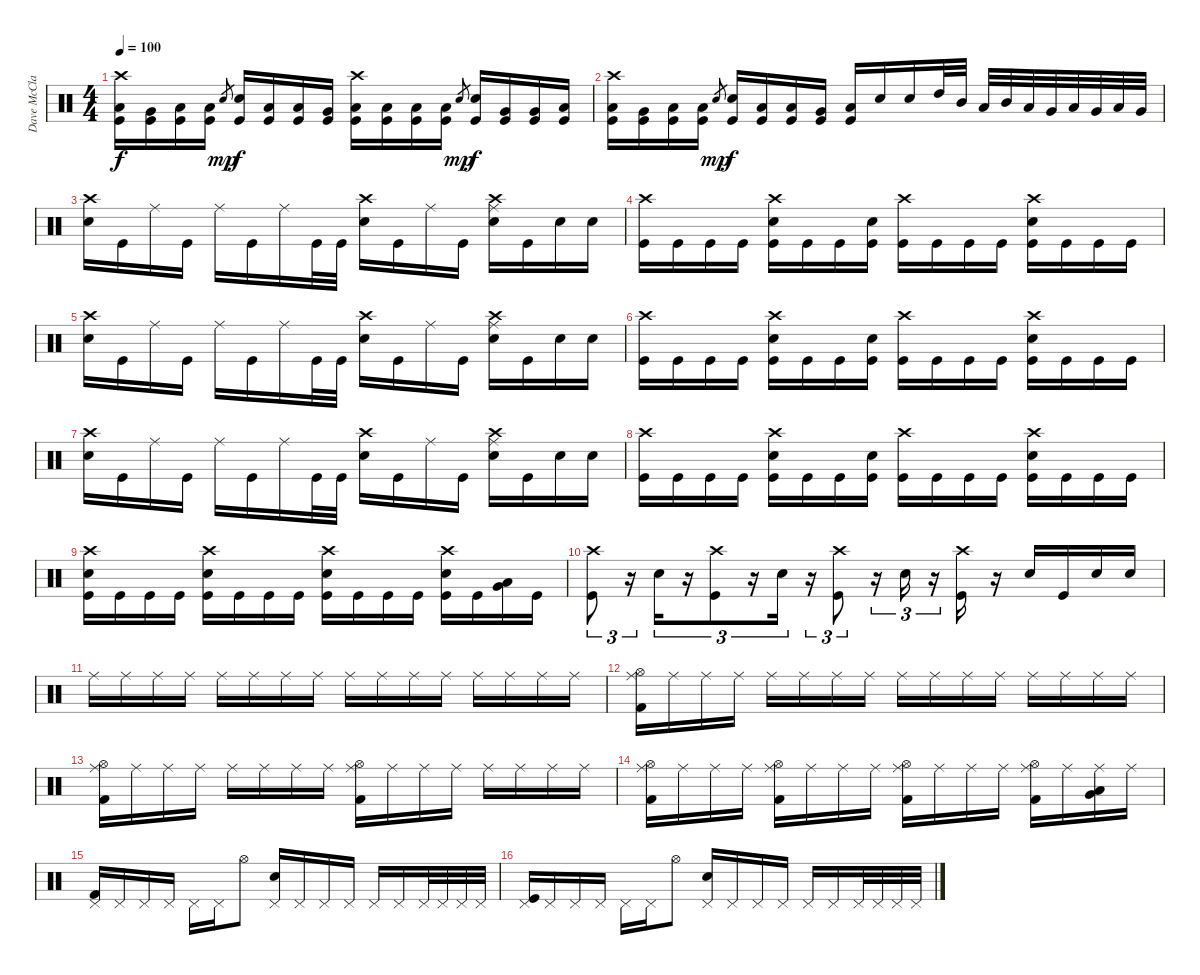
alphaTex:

\track ("Dave McClain" "Dave McCla") {instrument percussion}
\staff {score}
\articulation defaults
\ts (4 4)
\tempo 100
\clef neutral
\ks c
("Crash high (hit)" "Low Tom (hit)" "Kick (hit)").16{dy f} ("Very Low Tom (hit)" "Kick (hit)").16 ("Low Floor Tom (hit)" "Kick (hit)").16 ("Low Floor Tom (hit)" "Kick (hit)").16 "Snare (hit) 2".8{gr dy mp} ("Snare (hit) 2" "Kick (hit)").16{dy f} ("Low Floor Tom (hit)" "Kick (hit)").16 ("Low Tom (hit)" "Kick (hit)").16 ("Very Low Tom (hit)" "Kick (hit)").16 ("Crash high (hit)" "Low Floor Tom (hit)" "Kick (hit)").16 ("Low Floor Tom (hit)" "Kick (hit)").16 ("Low Floor Tom (hit)" "Kick (hit)").16 ("Low Floor Tom (hit)" "Kick (hit)").16 "Snare (hit) 2".8{gr dy mp} ("Snare (hit) 2" "Kick (hit)").16{dy f} ("Very Low Tom (hit)" "Kick (hit)").16 ("Very Low Tom (hit)" "Kick (hit)").16 ("Low Floor Tom (hit)" "Kick (hit)").16 |
("Crash high (hit)" "Low Tom (hit)" "Kick (hit)").16 ("Very Low Tom (hit)" "Kick (hit)").16 ("Low Floor Tom (hit)" "Kick (hit)").16 ("Low Floor Tom (hit)" "Kick (hit)").16 "Snare (hit) 2".8{gr dy mp} ("Snare (hit) 2" "Kick (hit)").16{dy f} ("Low Floor Tom (hit)" "Kick (hit)").16 ("Low Tom (hit)" "Kick (hit)").16 ("Very Low Tom (hit)" "Kick (hit)").16 ("Low Floor Tom (hit)" "Kick (hit)").16 "Snare (hit) 2".16 "Snare (hit) 2".16 "High Tom (hit)".32 "Mid Tom (hit)".32 "Low Tom (hit)".32 "Mid Tom (hit)".32 "Low Tom (hit)".32 "Very Low Tom (hit)".32 "Low Tom (hit)".32 "Very Low Tom (hit)".32 "Low Floor Tom (hit)".32 "Very Low Tom (hit)".32 |
("Crash high (hit)" "Snare (hit) 2").16 "Kick (hit)".16 "Ride (middle)".16 "Kick (hit)".16 "Ride (middle)".16 "Kick (hit)".16 "Ride (middle)".16 "Kick (hit)".32 "Kick (hit)".32 ("Crash high (hit)" "Snare (hit) 2").16 "Kick (hit)".16 "Ride (middle)".16 "Kick (hit)".16 ("Crash high (hit)" "Ride (middle)" "Snare (hit) 2").16 "Kick (hit)".16 "Snare (hit) 2".16 "Snare (hit) 2".16 |
("Crash high (hit)" "Kick (hit)").16 "Kick (hit)".16 "Kick (hit)".16 "Kick (hit)".16 ("Crash high (hit)" "Snare (hit) 2" "Kick (hit)").16 "Kick (hit)".16 "Kick (hit)".16 ("Snare (hit) 2" "Kick (hit)").16 ("Crash high (hit)" "Kick (hit)").16 "Kick (hit)".16 "Kick (hit)".16 "Kick (hit)".16 ("Crash high (hit)" "Snare (hit) 2" "Kick (hit)").16 "Kick (hit)".16 "Kick (hit)".16 "Kick (hit)".16 |
("Crash high (hit)" "Snare (hit) 2").16 "Kick (hit)".16 "Ride (middle)".16 "Kick (hit)".16 "Ride (middle)".16 "Kick (hit)".16 "Ride (middle)".16 "Kick (hit)".32 "Kick (hit)".32 ("Crash high (hit)" "Snare (hit) 2").16 "Kick (hit)".16 "Ride (middle)".16 "Kick (hit)".16 ("Crash high (hit)" "Ride (middle)" "Snare (hit) 2").16 "Kick (hit)".16 "Snare (hit) 2".16 "Snare (hit) 2".16 |
("Crash high (hit)" "Kick (hit)").16 "Kick (hit)".16 "Kick (hit)".16 "Kick (hit)".16 ("Crash high (hit)" "Snare (hit) 2" "Kick (hit)").16 "Kick (hit)".16 "Kick (hit)".16 ("Snare (hit) 2" "Kick (hit)").16 ("Crash high (hit)" "Kick (hit)").16 "Kick (hit)".16 "Kick (hit)".16 "Kick (hit)".16 ("Crash high (hit)" "Snare (hit) 2" "Kick (hit)").16 "Kick (hit)".16 "Kick (hit)".16 "Kick (hit)".16 |
("Crash high (hit)" "Snare (hit) 2").16 "Kick (hit)".16 "Ride (middle)".16 "Kick (hit)".16 "Ride (middle)".16 "Kick (hit)".16 "Ride (middle)".16 "Kick (hit)".32 "Kick (hit)".32 ("Crash high (hit)" "Snare (hit) 2").16 "Kick (hit)".16 "Ride (middle)".16 "Kick (hit)".16 ("Crash high (hit)" "Ride (middle)" "Snare (hit) 2").16 "Kick (hit)".16 "Snare (hit) 2".16 "Snare (hit) 2".16 |
("Crash high (hit)" "Kick (hit)").16 "Kick (hit)".16 "Kick (hit)".16 "Kick (hit)".16 ("Crash high (hit)" "Snare (hit) 2" "Kick (hit)").16 "Kick (hit)".16 "Kick (hit)".16 ("Snare (hit) 2" "Kick (hit)").16 ("Crash high (hit)" "Kick (hit)").16 "Kick (hit)".16 "Kick (hit)".16 "Kick (hit)".16 ("Crash high (hit)" "Snare (hit) 2" "Kick (hit)").16 "Kick (hit)".16 "Kick (hit)".16 "Kick (hit)".16 |
("Crash high (hit)" "Snare (hit) 2" "Kick (hit)").16 "Kick (hit)".16 "Kick (hit)".16 "Kick (hit)".16 ("Crash high (hit)" "Snare (hit) 2" "Kick (hit)").16 "Kick (hit)".16 "Kick (hit)".16 "Kick (hit)".16 ("Crash high (hit)" "Snare (hit) 2" "Kick (hit)").16 "Kick (hit)".16 "Kick (hit)".16 "Kick (hit)".16 ("Crash high (hit)" "Snare (hit) 2" "Kick (hit)").16 "Kick (hit)".16 ("Very Low Tom (hit)" "Low Floor Tom (hit)").16 "Kick (hit)".16 |
("Crash high (hit)" "Kick (hit)").8{tu (3 2)} r.16{tu (3 2)} "Snare (hit) 2".16{tu (3 2)} r.16{tu (3 2)} ("Crash high (hit)" "Kick (hit)").8{tu (3 2)} r.16{tu (3 2)} "Snare (hit) 2".16{tu (3 2)} r.16{tu (3 2)} ("Crash high (hit)" "Kick (hit)").8{tu (3 2)} r.16{tu (3 2)} "Snare (hit) 2".16{tu (3 2)} r.16{tu (3 2)} ("Crash high (hit)" "Kick (hit)").16 r.16 "Snare (hit) 2".16 "Kick (hit)".16 "Snare (hit) 2".16 "Snare (hit) 2".16 |
"Ride (middle)".16 "Ride (middle)".16 "Ride (middle)".16 "Ride (middle)".16 "Ride (middle)".16 "Ride (middle)".16 "Ride (middle)".16 "Ride (middle)".16 "Ride (middle)".16 "Ride (middle)".16 "Ride (middle)".16 "Ride (middle)".16 "Ride (middle)".16 "Ride (middle)".16 "Ride (middle)".16 "Ride (middle)".16 |
("Hi-Hat (open)" "Ride (middle)" "Kick (hit) 2").16 "Ride (middle)".16 "Ride (middle)".16 "Ride (middle)".16 "Ride (middle)".16 "Ride (middle)".16 "Ride (middle)".16 "Ride (middle)".16 "Ride (middle)".16 "Ride (middle)".16 "Ride (middle)".16 "Ride (middle)".16 "Ride (middle)".16 "Ride (middle)".16 "Ride (middle)".16 "Ride (middle)".16 |
("Hi-Hat (open)" "Ride (middle)" "Kick (hit) 2").16 "Ride (middle)".16 "Ride (middle)".16 "Ride (middle)".16 "Ride (middle)".16 "Ride (middle)".16 "Ride (middle)".16 "Ride (middle)".16 ("Hi-Hat (open)" "Ride (middle)" "Kick (hit) 2").16 "Ride (middle)".16 "Ride (middle)".16 "Ride (middle)".16 "Ride (middle)".16 "Ride (middle)".16 "Ride (middle)".16 "Ride (middle)".16 |
("Hi-Hat (open)" "Ride (middle)" "Kick (hit) 2").16 "Ride (middle)".16 "Ride (middle)".16 "Ride (middle)".16 ("Hi-Hat (open)" "Ride (middle)" "Kick (hit) 2").16 "Ride (middle)".16 "Ride (middle)".16 "Ride (middle)".16 ("Hi-Hat (open)" "Ride (middle)" "Kick (hit) 2").16 "Ride (middle)".16 "Ride (middle)".16 "Ride (middle)".16 ("Hi-Hat (open)" "Ride (middle)" "Kick (hit) 2").16 "Ride (middle)".16 ("Ride (middle)" "Low Floor Tom (hit)" "Very Low Tom (hit)").16 "Ride (middle)".16 |
("Pedal Hi-Hat (hit)" "Kick (hit) 2").16 "Pedal Hi-Hat (hit)".16 "Pedal Hi-Hat (hit)".16 "Pedal Hi-Hat (hit)".16 "Pedal Hi-Hat (hit)".16 "Pedal Hi-Hat (hit)".16 "Hi-Hat (open)".8 ("Pedal Hi-Hat (hit)" "Snare (hit) 2").16 "Pedal Hi-Hat (hit)".16 "Pedal Hi-Hat (hit)".16 "Pedal Hi-Hat (hit)".16 "Pedal Hi-Hat (hit)".16 "Pedal Hi-Hat (hit)".16 "Pedal Hi-Hat (hit)".32 "Pedal Hi-Hat (hit)".32 "Pedal Hi-Hat (hit)".32 "Pedal Hi-Hat (hit)".32 |
("Pedal Hi-Hat (hit)" "Kick (hit)").16 "Pedal Hi-Hat (hit)".16 "Pedal Hi-Hat (hit)".16 "Pedal Hi-Hat (hit)".16 "Pedal Hi-Hat (hit)".16 "Pedal Hi-Hat (hit)".16 "Hi-Hat (open)".8 ("Pedal Hi-Hat (hit)" "Snare (hit) 2").16 "Pedal Hi-Hat (hit)".16 "Pedal Hi-Hat (hit)".16 "Pedal Hi-Hat (hit)".16 "Pedal Hi-Hat (hit)".16 "Pedal Hi-Hat (hit)".16 "Pedal Hi-Hat (hit)".32 "Pedal Hi-Hat (hit)".32 "Pedal Hi-Hat (hit)".32 "Pedal Hi-Hat (hit)".32
